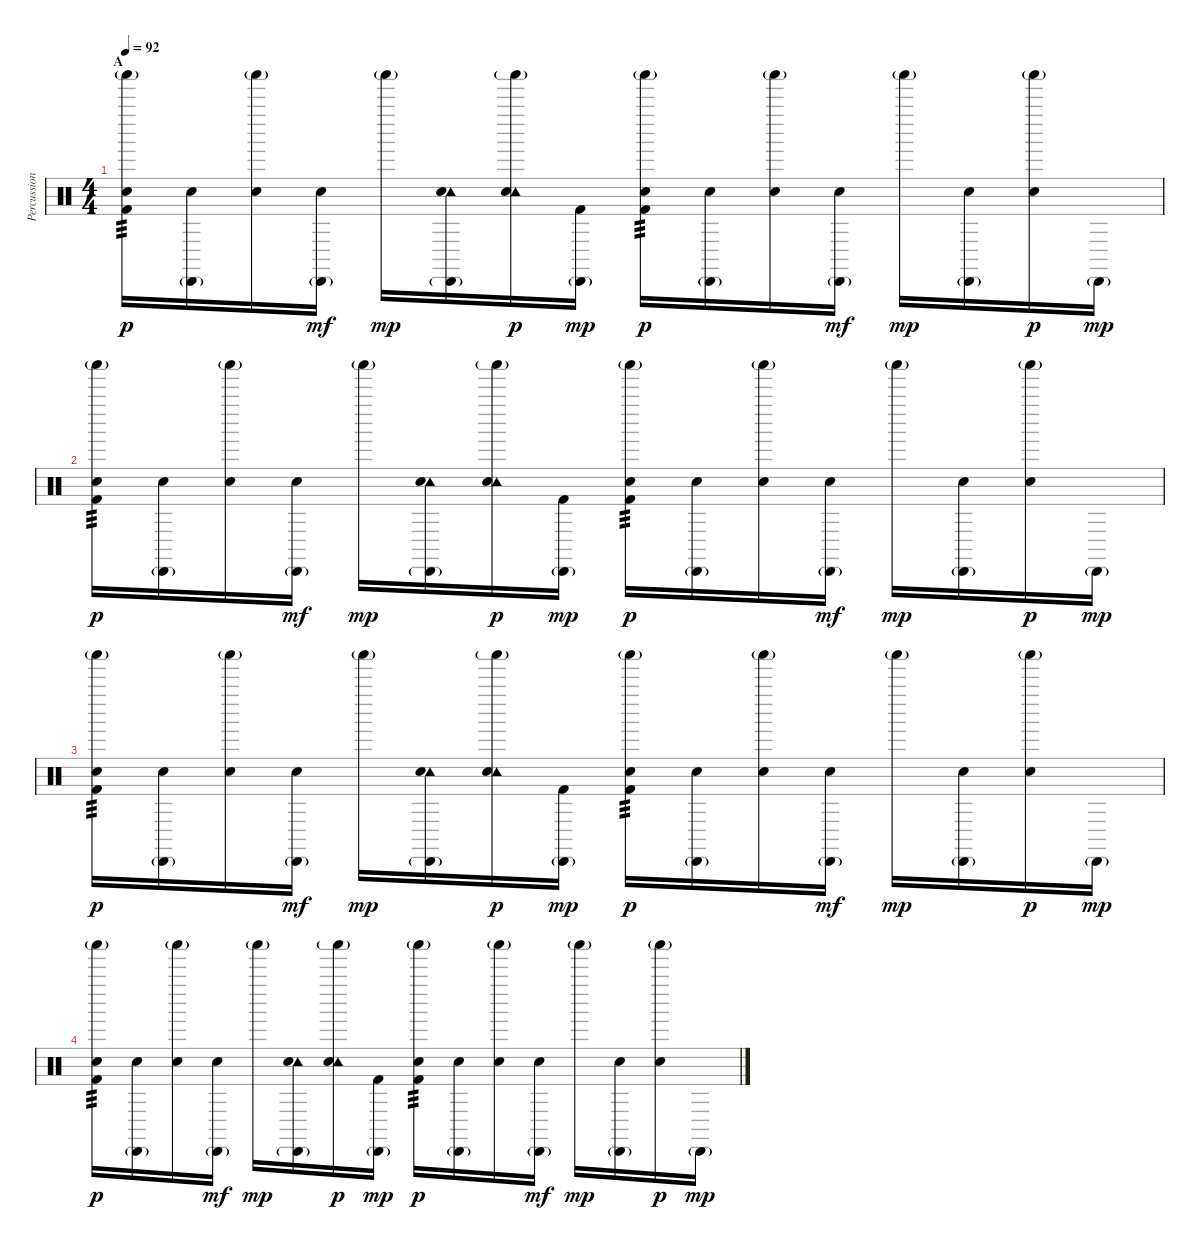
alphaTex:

\track ("Percussion2" "Percussion") {instrument percussion}
\staff {score}
\articulation defaults
\ts (4 4)
\section ("" "A")
\tempo 92
\clef neutral
\ks c
("Shaker (hit)"{g} "Snare (hit) 2" "Kick (hit) 2").16{tp 3 dy p} ("Cabasa (hit)"{g} "Snare (hit) 2").16 ("Shaker (hit)"{g} "Snare (hit) 2").16 ("Cabasa (hit)"{g} "Snare (hit) 2").16{dy mf} "Shaker (hit)"{g}.16{dy mp} ("Cabasa (hit)"{g} "Tambourine (hit)" "Snare (hit) 2").16 ("Shaker (hit)"{g} "Tambourine (hit)" "Snare (hit) 2").16{dy p} ("Cabasa (hit)"{g} "Kick (hit) 2").16{dy mp} ("Shaker (hit)"{g} "Snare (hit) 2" "Kick (hit) 2").16{tp 3 dy p} ("Cabasa (hit)"{g} "Snare (hit) 2").16 ("Shaker (hit)"{g} "Snare (hit) 2").16 ("Cabasa (hit)"{g} "Snare (hit) 2").16{dy mf} "Shaker (hit)"{g}.16{dy mp} ("Cabasa (hit)"{g} "Snare (hit) 2").16 ("Shaker (hit)"{g} "Snare (hit) 2").16{dy p} "Cabasa (hit)"{g}.16{dy mp} |
("Shaker (hit)"{g} "Snare (hit) 2" "Kick (hit) 2").16{tp 3 dy p} ("Cabasa (hit)"{g} "Snare (hit) 2").16 ("Shaker (hit)"{g} "Snare (hit) 2").16 ("Cabasa (hit)"{g} "Snare (hit) 2").16{dy mf} "Shaker (hit)"{g}.16{dy mp} ("Cabasa (hit)"{g} "Tambourine (hit)" "Snare (hit) 2").16 ("Shaker (hit)"{g} "Tambourine (hit)" "Snare (hit) 2").16{dy p} ("Cabasa (hit)"{g} "Kick (hit) 2").16{dy mp} ("Shaker (hit)"{g} "Snare (hit) 2" "Kick (hit) 2").16{tp 3 dy p} ("Cabasa (hit)"{g} "Snare (hit) 2").16 ("Shaker (hit)"{g} "Snare (hit) 2").16 ("Cabasa (hit)"{g} "Snare (hit) 2").16{dy mf} "Shaker (hit)"{g}.16{dy mp} ("Cabasa (hit)"{g} "Snare (hit) 2").16 ("Shaker (hit)"{g} "Snare (hit) 2").16{dy p} "Cabasa (hit)"{g}.16{dy mp} |
("Shaker (hit)"{g} "Snare (hit) 2" "Kick (hit) 2").16{tp 3 dy p} ("Cabasa (hit)"{g} "Snare (hit) 2").16 ("Shaker (hit)"{g} "Snare (hit) 2").16 ("Cabasa (hit)"{g} "Snare (hit) 2").16{dy mf} "Shaker (hit)"{g}.16{dy mp} ("Cabasa (hit)"{g} "Tambourine (hit)" "Snare (hit) 2").16 ("Shaker (hit)"{g} "Tambourine (hit)" "Snare (hit) 2").16{dy p} ("Cabasa (hit)"{g} "Kick (hit) 2").16{dy mp} ("Shaker (hit)"{g} "Snare (hit) 2" "Kick (hit) 2").16{tp 3 dy p} ("Cabasa (hit)"{g} "Snare (hit) 2").16 ("Shaker (hit)"{g} "Snare (hit) 2").16 ("Cabasa (hit)"{g} "Snare (hit) 2").16{dy mf} "Shaker (hit)"{g}.16{dy mp} ("Cabasa (hit)"{g} "Snare (hit) 2").16 ("Shaker (hit)"{g} "Snare (hit) 2").16{dy p} "Cabasa (hit)"{g}.16{dy mp} |
("Shaker (hit)"{g} "Snare (hit) 2" "Kick (hit) 2").16{tp 3 dy p} ("Cabasa (hit)"{g} "Snare (hit) 2").16 ("Shaker (hit)"{g} "Snare (hit) 2").16 ("Cabasa (hit)"{g} "Snare (hit) 2").16{dy mf} "Shaker (hit)"{g}.16{dy mp} ("Cabasa (hit)"{g} "Tambourine (hit)" "Snare (hit) 2").16 ("Shaker (hit)"{g} "Tambourine (hit)" "Snare (hit) 2").16{dy p} ("Cabasa (hit)"{g} "Kick (hit) 2").16{dy mp} ("Shaker (hit)"{g} "Snare (hit) 2" "Kick (hit) 2").16{tp 3 dy p} ("Cabasa (hit)"{g} "Snare (hit) 2").16 ("Shaker (hit)"{g} "Snare (hit) 2").16 ("Cabasa (hit)"{g} "Snare (hit) 2").16{dy mf} "Shaker (hit)"{g}.16{dy mp} ("Cabasa (hit)"{g} "Snare (hit) 2").16 ("Shaker (hit)"{g} "Snare (hit) 2").16{dy p} "Cabasa (hit)"{g}.16{dy mp}
